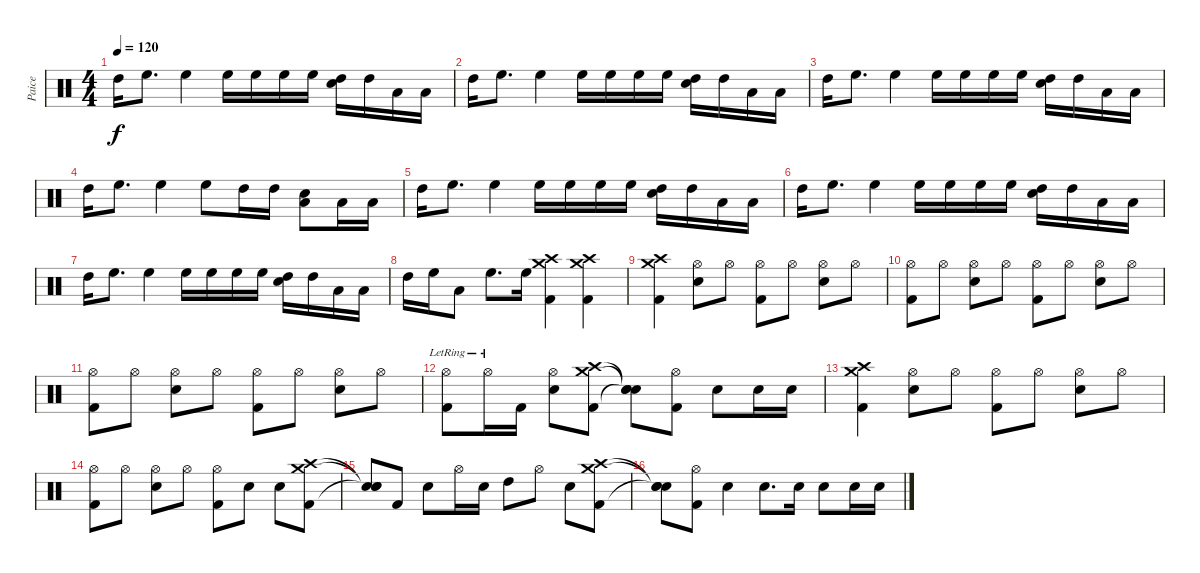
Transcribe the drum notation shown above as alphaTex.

\track ("Paice" "Paice") {instrument percussion}
\staff {score}
\articulation defaults
\ts (4 4)
\tempo 120
\clef neutral
\ks c "High Tom (hit)".16{dy f} "High Floor Tom (hit)".8{d} "High Floor Tom (hit)".4 "High Floor Tom (hit)".16 "High Floor Tom (hit)".16 "High Floor Tom (hit)".16 "High Floor Tom (hit)".16
("High Tom (hit)" "Hand Clap (hit)").16 "High Tom (hit)".16 "Low Tom (hit)".16 "Low Tom (hit)".16 |
"High Tom (hit)".16 "High Floor Tom (hit)".8{d} "High Floor Tom (hit)".4 "High Floor Tom (hit)".16 "High Floor Tom (hit)".16 "High Floor Tom (hit)".16 "High Floor Tom (hit)".16 ("High Tom (hit)" "Hand Clap (hit)").16 "High Tom (hit)".16 "Low Tom (hit)".16 "Low Tom (hit)".16 |
"High Tom (hit)".16 "High Floor Tom (hit)".8{d} "High Floor Tom (hit)".4 "High Floor Tom (hit)".16 "High Floor Tom (hit)".16 "High Floor Tom (hit)".16 "High Floor Tom (hit)".16 ("High Tom (hit)" "Hand Clap (hit)").16 "High Tom (hit)".16 "Low Tom (hit)".16 "Low Tom (hit)".16 |
"High Tom (hit)".16 "High Floor Tom (hit)".8{d} "High Floor Tom (hit)".4 "High Floor Tom (hit)".8 "High Tom (hit)".16 "High Tom (hit)".16 ("Low Tom (hit)" "Hand Clap (hit)").8 "Low Tom (hit)".16 "Low Tom (hit)".16 |
"High Tom (hit)".16 "High Floor Tom (hit)".8{d} "High Floor Tom (hit)".4 "High Floor Tom (hit)".16 "High Floor Tom (hit)".16 "High Floor Tom (hit)".16 "High Floor Tom (hit)".16 ("High Tom (hit)" "Hand Clap (hit)").16 "High Tom (hit)".16 "Low Tom (hit)".16 "Low Tom (hit)".16 |
"High Tom (hit)".16 "High Floor Tom (hit)".8{d} "High Floor Tom (hit)".4 "High Floor Tom (hit)".16 "High Floor Tom (hit)".16 "High Floor Tom (hit)".16 "High Floor Tom (hit)".16 ("High Tom (hit)" "Hand Clap (hit)").16 "High Tom (hit)".16 "Low Tom (hit)".16 "Low Tom (hit)".16 |
"High Tom (hit)".16 "High Floor Tom (hit)".8{d} "High Floor Tom (hit)".4 "High Floor Tom (hit)".16 "High Floor Tom (hit)".16 "High Floor Tom (hit)".16 "High Floor Tom (hit)".16 ("High Tom (hit)" "Hand Clap (hit)").16 "High Tom (hit)".16 "Low Tom (hit)".16 "Low Tom (hit)".16 |
"High Tom (hit)".16 "High Floor Tom (hit)".16 "Low Tom (hit)".8 "High Floor Tom (hit)".8{d} "High Floor Tom (hit)".16 ("Crash high (hit)" "Crash medium (hit)" "Kick (hit) 2").4 ("Crash high (hit)" "Crash medium (hit)" "Kick (hit) 2").4 |
("Crash high (hit)" "Crash medium (hit)" "Kick (hit) 2").4 ("Hi-Hat (open)" "Electric Snare (hit)").8 "Hi-Hat (open)".8 ("Hi-Hat (open)" "Kick (hit) 2").8 "Hi-Hat (open)".8 ("Hi-Hat (open)" "Electric Snare (hit)").8 "Hi-Hat (open)".8 |
("Hi-Hat (open)" "Kick (hit) 2").8 "Hi-Hat (open)".8 ("Hi-Hat (open)" "Electric Snare (hit)").8 "Hi-Hat (open)".8 ("Hi-Hat (open)" "Kick (hit) 2").8 "Hi-Hat (open)".8 ("Hi-Hat (open)" "Electric Snare (hit)").8 "Hi-Hat (open)".8 |
("Hi-Hat (open)" "Kick (hit) 2").8 "Hi-Hat (open)".8 ("Hi-Hat (open)" "Electric Snare (hit)").8 "Hi-Hat (open)".8 ("Hi-Hat (open)" "Kick (hit) 2").8 "Hi-Hat (open)".8 ("Hi-Hat (open)" "Electric Snare (hit)").8 "Hi-Hat (open)".8 |
("Hi-Hat (open)" "Kick (hit) 2"{lr}).8 "Hi-Hat (open)"{lr}.16 "Kick (hit) 2".16 ("Hi-Hat (open)" "Electric Snare (hit)").8 ("Crash high (hit)" "Crash medium (hit)" "Kick (hit) 2").8 ("Snare (hit)"{t} "Snare (hit)"{t} "Snare (hit)"{t}).8 ("Hi-Hat (open)" "Kick (hit) 2").8 "Electric Snare (hit)".8 "Electric Snare (hit)".16 "Electric Snare (hit)".16 |
("Crash high (hit)" "Crash medium (hit)" "Kick (hit) 2").4 ("Hi-Hat (open)" "Electric Snare (hit)").8 "Hi-Hat (open)".8 ("Hi-Hat (open)" "Kick (hit) 2").8 "Hi-Hat (open)".8 ("Hi-Hat (open)" "Electric Snare (hit)").8 "Hi-Hat (open)".8 |
("Hi-Hat (open)" "Kick (hit) 2").8 "Hi-Hat (open)".8 ("Hi-Hat (open)" "Electric Snare (hit)").8 "Hi-Hat (open)".8 ("Hi-Hat (open)" "Kick (hit) 2").8 "Electric Snare (hit)".8 "Electric Snare (hit)".8 ("Crash high (hit)" "Crash medium (hit)" "Kick (hit) 2").8 |
("Snare (hit)"{t} "Snare (hit)"{t} "Snare (hit)"{t}).8 "Kick (hit) 2".8 "Electric Snare (hit)".8 "Hi-Hat (open)".16 "Electric Snare (hit)".16 "High Tom (hit)".8 "Hi-Hat (open)".8 "Electric Snare (hit)".8 ("Crash high (hit)" "Crash medium (hit)" "Kick (hit) 2").8 |
("Snare (hit)"{t} "Snare (hit)"{t} "Snare (hit)"{t}).8 ("Hi-Hat (open)" "Kick (hit) 2").8 "Electric Snare (hit)".4 "Electric Snare (hit)".8{d} "Electric Snare (hit)".16 "Electric Snare (hit)".8 "Electric Snare (hit)".16 "Electric Snare (hit)".16
